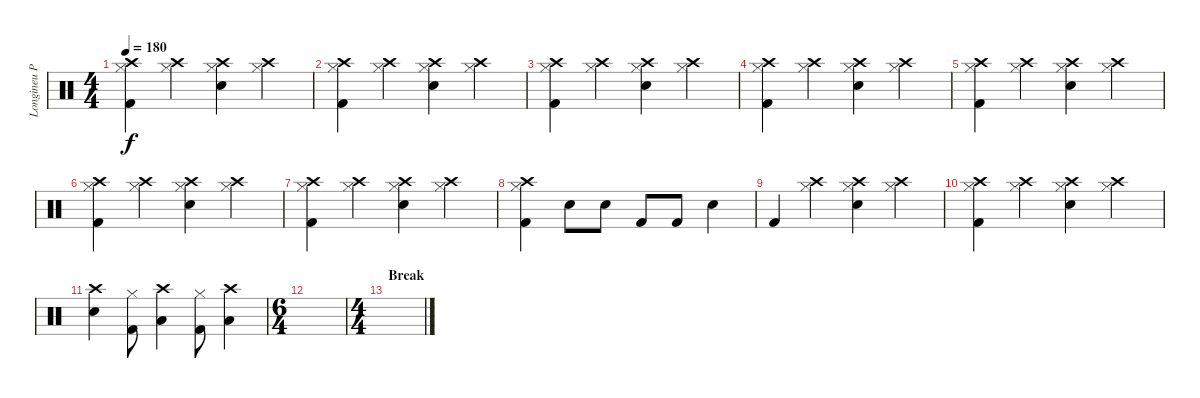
\track ("Longineu Parsons III (Drums)" "Longineu P") {instrument percussion}
\staff {score}
\articulation defaults
\ts (4 4)
\tempo 180
\clef neutral
\ks c
("Crash high (hit)" "Hi-Hat (closed)" "Kick (hit) 2").4{dy f} ("Crash high (hit)" "Hi-Hat (closed)").4 ("Crash high (hit)" "Hi-Hat (closed)" "Snare (hit) 2").4 ("Crash high (hit)" "Hi-Hat (closed)").4 |
("Crash high (hit)" "Hi-Hat (closed)" "Kick (hit) 2").4 ("Crash high (hit)" "Hi-Hat (closed)").4 ("Crash high (hit)" "Hi-Hat (closed)" "Snare (hit) 2").4 ("Crash high (hit)" "Hi-Hat (closed)").4 |
("Crash high (hit)" "Hi-Hat (closed)" "Kick (hit) 2").4 ("Crash high (hit)" "Hi-Hat (closed)").4 ("Crash high (hit)" "Hi-Hat (closed)" "Snare (hit) 2").4 ("Crash high (hit)" "Hi-Hat (closed)").4 |
("Crash high (hit)" "Hi-Hat (closed)" "Kick (hit) 2").4 ("Crash high (hit)" "Hi-Hat (closed)").4 ("Crash high (hit)" "Hi-Hat (closed)" "Snare (hit) 2").4 ("Crash high (hit)" "Hi-Hat (closed)").4 |
("Crash high (hit)" "Hi-Hat (closed)" "Kick (hit) 2").4 ("Crash high (hit)" "Hi-Hat (closed)").4 ("Crash high (hit)" "Hi-Hat (closed)" "Snare (hit) 2").4 ("Crash high (hit)" "Hi-Hat (closed)").4 |
("Crash high (hit)" "Hi-Hat (closed)" "Kick (hit) 2").4 ("Crash high (hit)" "Hi-Hat (closed)").4 ("Crash high (hit)" "Hi-Hat (closed)" "Snare (hit) 2").4 ("Crash high (hit)" "Hi-Hat (closed)").4 |
("Crash high (hit)" "Hi-Hat (closed)" "Kick (hit) 2").4 ("Crash high (hit)" "Hi-Hat (closed)").4 ("Crash high (hit)" "Hi-Hat (closed)" "Snare (hit) 2").4 ("Crash high (hit)" "Hi-Hat (closed)").4 |
("Crash high (hit)" "Hi-Hat (closed)" "Kick (hit) 2").4 "Snare (hit) 2".8 "Snare (hit) 2".8 "Kick (hit) 2".8 "Kick (hit) 2".8 "Snare (hit) 2".4 |
"Kick (hit) 2".4 ("Crash high (hit)" "Hi-Hat (closed)").4 ("Crash high (hit)" "Hi-Hat (closed)" "Snare (hit) 2").4 ("Crash high (hit)" "Hi-Hat (closed)").4 |
("Crash high (hit)" "Hi-Hat (closed)" "Kick (hit) 2").4 ("Crash high (hit)" "Hi-Hat (closed)").4 ("Crash high (hit)" "Hi-Hat (closed)" "Snare (hit) 2").4 ("Crash high (hit)" "Hi-Hat (closed)").4 |
("Crash high (hit)" "Snare (hit) 2").4 ("Kick (hit) 2" "Hi-Hat (closed)").8 ("Crash high (hit)" "Low Tom (hit)").4 ("Kick (hit) 2" "Hi-Hat (closed)").8 ("Crash high (hit)" "Low Floor Tom (hit)").4 |
\ts (6 4)
|
\ts (4 4)
\section ("" "Break")
